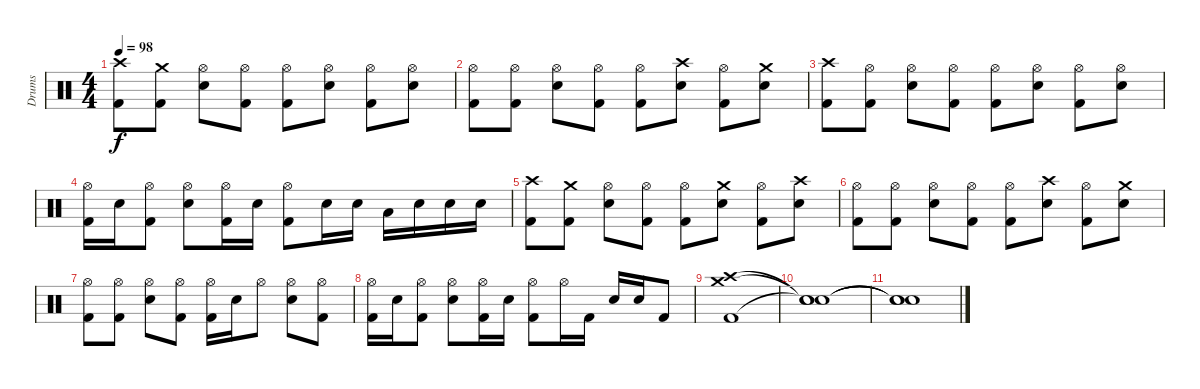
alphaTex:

\track ("Drums" "Drums") {instrument percussion}
\staff
\articulation defaults
\ts (4 4)
\tempo 98
\clef neutral
\ks c
("Crash high (hit)" "Kick (hit) 2").8{dy f} ("Crash medium (hit)" "Kick (hit) 2").8 ("Hi-Hat (open)" "Snare (hit) 2").8 ("Hi-Hat (open)" "Kick (hit) 2").8 ("Hi-Hat (open)" "Kick (hit) 2").8 ("Hi-Hat (open)" "Snare (hit) 2").8 ("Hi-Hat (open)" "Kick (hit) 2").8 ("Hi-Hat (open)" "Snare (hit) 2").8 |
("Hi-Hat (open)" "Kick (hit) 2").8 ("Hi-Hat (open)" "Kick (hit) 2").8 ("Hi-Hat (open)" "Snare (hit) 2").8 ("Hi-Hat (open)" "Kick (hit) 2").8 ("Hi-Hat (open)" "Kick (hit) 2").8 ("Crash high (hit)" "Snare (hit) 2").8 ("Hi-Hat (open)" "Kick (hit) 2").8 ("Crash medium (hit)" "Snare (hit) 2").8 |
("Crash high (hit)" "Kick (hit) 2").8 ("Hi-Hat (open)" "Kick (hit) 2").8 ("Hi-Hat (open)" "Snare (hit) 2").8 ("Hi-Hat (open)" "Kick (hit) 2").8 ("Hi-Hat (open)" "Kick (hit) 2").8 ("Hi-Hat (open)" "Snare (hit) 2").8 ("Hi-Hat (open)" "Kick (hit) 2").8 ("Hi-Hat (open)" "Snare (hit) 2").8 |
("Hi-Hat (open)" "Kick (hit) 2").16 "Snare (hit) 2".16 ("Hi-Hat (open)" "Kick (hit) 2").8 ("Hi-Hat (open)" "Snare (hit) 2").8 ("Hi-Hat (open)" "Kick (hit) 2").16 "Snare (hit) 2".16 ("Hi-Hat (open)" "Kick (hit) 2").8 "Snare (hit) 2".16 "Snare (hit) 2".16 "Low Tom (hit)".16 "Snare (hit) 2".16 "Snare (hit) 2".16 "Snare (hit) 2".16 |
("Crash high (hit)" "Kick (hit) 2").8 ("Crash medium (hit)" "Kick (hit) 2").8 ("Hi-Hat (open)" "Snare (hit) 2").8 ("Hi-Hat (open)" "Kick (hit) 2").8 ("Hi-Hat (open)" "Kick (hit) 2").8 ("Crash medium (hit)" "Snare (hit) 2").8 ("Hi-Hat (open)" "Kick (hit) 2").8 ("Crash high (hit)" "Snare (hit) 2").8 |
("Hi-Hat (open)" "Kick (hit) 2").8 ("Hi-Hat (open)" "Kick (hit) 2").8 ("Hi-Hat (open)" "Snare (hit) 2").8 ("Hi-Hat (open)" "Kick (hit) 2").8 ("Hi-Hat (open)" "Kick (hit) 2").8 ("Crash high (hit)" "Snare (hit) 2").8 ("Hi-Hat (open)" "Kick (hit) 2").8 ("Crash medium (hit)" "Snare (hit) 2").8 |
("Hi-Hat (open)" "Kick (hit) 2").8 ("Hi-Hat (open)" "Kick (hit) 2").8 ("Hi-Hat (open)" "Snare (hit) 2").8 ("Hi-Hat (open)" "Kick (hit) 2").8 ("Hi-Hat (open)" "Kick (hit) 2").16 "Snare (hit) 2".16 "Hi-Hat (open)".8 ("Hi-Hat (open)" "Snare (hit) 2").8 ("Hi-Hat (open)" "Kick (hit) 2").8 |
("Hi-Hat (open)" "Kick (hit) 2").16 "Snare (hit) 2".16 ("Hi-Hat (open)" "Kick (hit) 2").8 ("Hi-Hat (open)" "Snare (hit) 2").8 ("Hi-Hat (open)" "Kick (hit) 2").16 "Snare (hit) 2".16 ("Hi-Hat (open)" "Kick (hit) 2").8 "Hi-Hat (open)".16 "Kick (hit) 2".16 "Snare (hit) 2".16 "Snare (hit) 2".16 "Kick (hit) 2".8 |
("Crash medium (hit)" "Crash high (hit)" "Kick (hit) 2").1 |
("Snare (hit)"{t} "Snare (hit)"{t} "Snare (hit)"{t}).1 |
("Snare (hit)"{t} "Snare (hit)"{t} "Snare (hit)"{t}).1
